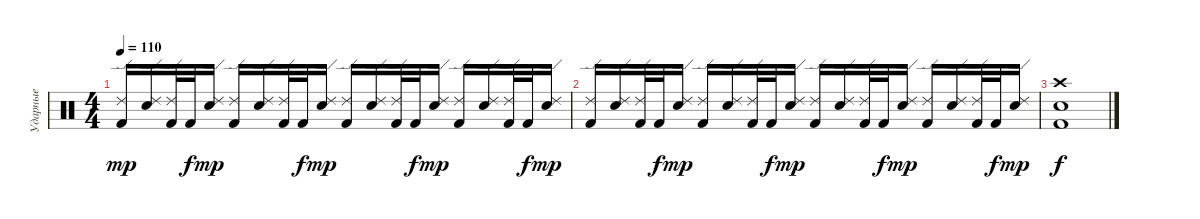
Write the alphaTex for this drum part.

\track ("Ударные" "Ударные") {instrument percussion}
\staff {score}
\articulation defaults
\ts (4 4)
\tempo 110
\clef neutral
\ks c
("Ride (edge) 2" "Kick (hit) 2").16{dy mp} ("Ride (edge) 2" "Electric Snare (hit)").16 ("Ride (edge) 2" "Kick (hit) 2").32 "Kick (hit) 2".32{dy f} ("Ride (edge) 2" "Electric Snare (hit)").16{dy mp} ("Ride (edge) 2" "Kick (hit) 2").16 ("Ride (edge) 2" "Electric Snare (hit)").16 ("Ride (edge) 2" "Kick (hit) 2").32 "Kick (hit) 2".32{dy f} ("Ride (edge) 2" "Electric Snare (hit)").16{dy mp} ("Ride (edge) 2" "Kick (hit) 2").16 ("Ride (edge) 2" "Electric Snare (hit)").16 ("Ride (edge) 2" "Kick (hit) 2").32 "Kick (hit) 2".32{dy f} ("Ride (edge) 2" "Electric Snare (hit)").16{dy mp} ("Ride (edge) 2" "Kick (hit) 2").16 ("Ride (edge) 2" "Electric Snare (hit)").16 ("Ride (edge) 2" "Kick (hit) 2").32 "Kick (hit) 2".32{dy f} ("Ride (edge) 2" "Electric Snare (hit)").16{dy mp} |
("Ride (edge) 2" "Kick (hit) 2").16 ("Ride (edge) 2" "Electric Snare (hit)").16 ("Ride (edge) 2" "Kick (hit) 2").32 "Kick (hit) 2".32{dy f} ("Ride (edge) 2" "Electric Snare (hit)").16{dy mp} ("Ride (edge) 2" "Kick (hit) 2").16 ("Ride (edge) 2" "Electric Snare (hit)").16 ("Ride (edge) 2" "Kick (hit) 2").32 "Kick (hit) 2".32{dy f} ("Ride (edge) 2" "Electric Snare (hit)").16{dy mp} ("Ride (edge) 2" "Kick (hit) 2").16 ("Ride (edge) 2" "Electric Snare (hit)").16 ("Ride (edge) 2" "Kick (hit) 2").32 "Kick (hit) 2".32{dy f} ("Ride (edge) 2" "Electric Snare (hit)").16{dy mp} ("Ride (edge) 2" "Kick (hit) 2").16 ("Ride (edge) 2" "Electric Snare (hit)").16 ("Ride (edge) 2" "Kick (hit) 2").32 "Kick (hit) 2".32{dy f} ("Ride (edge) 2" "Electric Snare (hit)").16{dy mp} |
("Crash high (hit)" "Electric Snare (hit)" "Kick (hit) 2").1{dy f}
